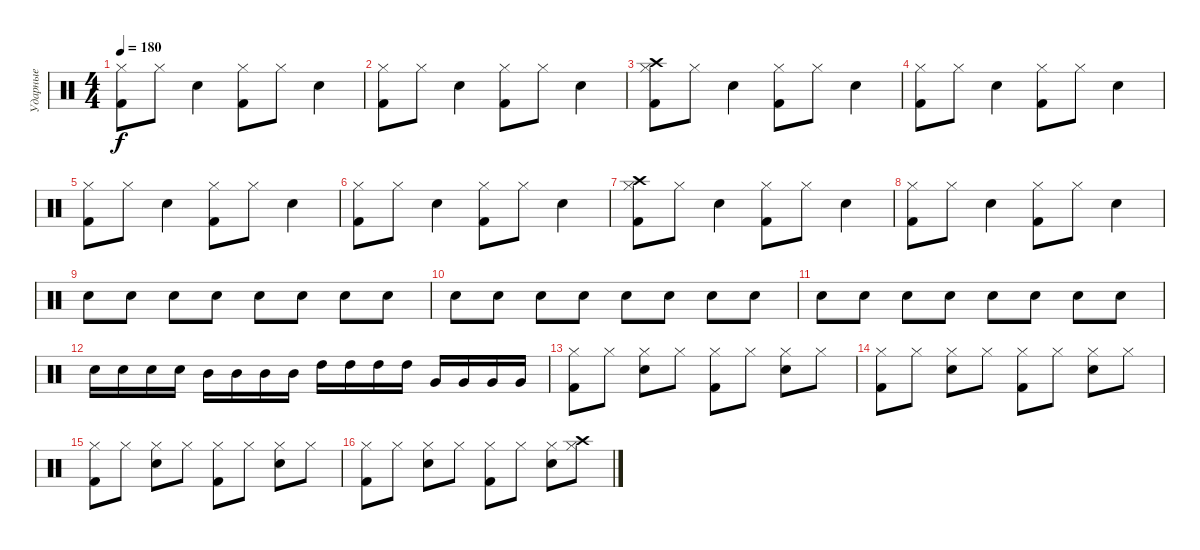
\track ("Ударные" "Ударные") {instrument percussion}
\staff {score}
\articulation defaults
\ts (4 4)
\tempo 180
\clef neutral
\ks c
("Hi-Hat (closed)" "Kick (hit) 2").8{dy f} "Hi-Hat (closed)".8 "Snare (hit) 2".4 ("Hi-Hat (closed)" "Kick (hit) 2").8 "Hi-Hat (closed)".8 "Snare (hit) 2".4 |
("Hi-Hat (closed)" "Kick (hit) 2").8 "Hi-Hat (closed)".8 "Snare (hit) 2".4 ("Hi-Hat (closed)" "Kick (hit) 2").8 "Hi-Hat (closed)".8 "Snare (hit) 2".4 |
("Hi-Hat (closed)" "Kick (hit) 2" "Crash high (hit)").8 "Hi-Hat (closed)".8 "Snare (hit) 2".4 ("Hi-Hat (closed)" "Kick (hit) 2").8 "Hi-Hat (closed)".8 "Snare (hit) 2".4 |
("Hi-Hat (closed)" "Kick (hit) 2").8 "Hi-Hat (closed)".8 "Snare (hit) 2".4 ("Hi-Hat (closed)" "Kick (hit) 2").8 "Hi-Hat (closed)".8 "Snare (hit) 2".4 |
("Hi-Hat (closed)" "Kick (hit) 2").8 "Hi-Hat (closed)".8 "Snare (hit) 2".4 ("Hi-Hat (closed)" "Kick (hit) 2").8 "Hi-Hat (closed)".8 "Snare (hit) 2".4 |
("Hi-Hat (closed)" "Kick (hit) 2").8 "Hi-Hat (closed)".8 "Snare (hit) 2".4 ("Hi-Hat (closed)" "Kick (hit) 2").8 "Hi-Hat (closed)".8 "Snare (hit) 2".4 |
("Hi-Hat (closed)" "Kick (hit) 2" "Crash high (hit)").8 "Hi-Hat (closed)".8 "Snare (hit) 2".4 ("Hi-Hat (closed)" "Kick (hit) 2").8 "Hi-Hat (closed)".8 "Snare (hit) 2".4 |
("Hi-Hat (closed)" "Kick (hit) 2").8 "Hi-Hat (closed)".8 "Snare (hit) 2".4 ("Hi-Hat (closed)" "Kick (hit) 2").8 "Hi-Hat (closed)".8 "Snare (hit) 2".4 |
"Snare (hit) 2".8 "Snare (hit) 2".8 "Snare (hit) 2".8 "Snare (hit) 2".8 "Snare (hit) 2".8 "Snare (hit) 2".8 "Snare (hit) 2".8 "Snare (hit) 2".8 |
"Snare (hit) 2".8 "Snare (hit) 2".8 "Snare (hit) 2".8 "Snare (hit) 2".8 "Snare (hit) 2".8 "Snare (hit) 2".8 "Snare (hit) 2".8 "Snare (hit) 2".8 |
"Snare (hit) 2".8 "Snare (hit) 2".8 "Snare (hit) 2".8 "Snare (hit) 2".8 "Snare (hit) 2".8 "Snare (hit) 2".8 "Snare (hit) 2".8 "Snare (hit) 2".8 |
"Snare (hit) 2".16 "Snare (hit) 2".16 "Snare (hit) 2".16 "Snare (hit) 2".16 "Mid Tom (hit)".16 "Mid Tom (hit)".16 "Mid Tom (hit)".16 "Mid Tom (hit)".16 "High Tom (hit)".16 "High Tom (hit)".16 "High Tom (hit)".16 "High Tom (hit)".16 "Very Low Tom (hit)".16 "Very Low Tom (hit)".16 "Very Low Tom (hit)".16 "Very Low Tom (hit)".16 |
("Hi-Hat (closed)" "Kick (hit) 2").8 "Hi-Hat (closed)".8 ("Hi-Hat (closed)" "Snare (hit) 2").8 "Hi-Hat (closed)".8 ("Hi-Hat (closed)" "Kick (hit) 2").8 "Hi-Hat (closed)".8 ("Hi-Hat (closed)" "Snare (hit) 2").8 "Hi-Hat (closed)".8 |
("Hi-Hat (closed)" "Kick (hit) 2").8 "Hi-Hat (closed)".8 ("Hi-Hat (closed)" "Snare (hit) 2").8 "Hi-Hat (closed)".8 ("Hi-Hat (closed)" "Kick (hit) 2").8 "Hi-Hat (closed)".8 ("Hi-Hat (closed)" "Snare (hit) 2").8 "Hi-Hat (closed)".8 |
("Hi-Hat (closed)" "Kick (hit) 2").8 "Hi-Hat (closed)".8 ("Hi-Hat (closed)" "Snare (hit) 2").8 "Hi-Hat (closed)".8 ("Hi-Hat (closed)" "Kick (hit) 2").8 "Hi-Hat (closed)".8 ("Hi-Hat (closed)" "Snare (hit) 2").8 "Hi-Hat (closed)".8 |
("Hi-Hat (closed)" "Kick (hit) 2").8 "Hi-Hat (closed)".8 ("Hi-Hat (closed)" "Snare (hit) 2").8 "Hi-Hat (closed)".8 ("Hi-Hat (closed)" "Kick (hit) 2").8 "Hi-Hat (closed)".8 ("Hi-Hat (closed)" "Snare (hit) 2").8 ("Hi-Hat (closed)" "Crash high (hit)").8
